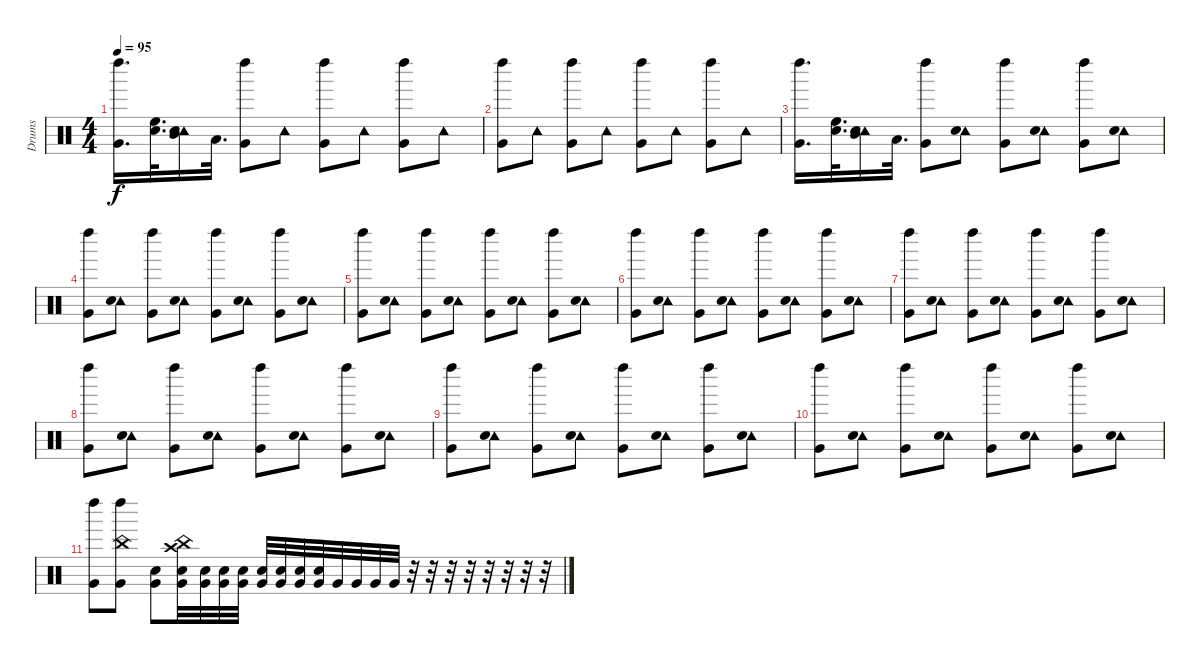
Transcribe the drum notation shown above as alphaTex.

\track ("Drums" "Drums") {instrument percussion}
\staff {score}
\articulation defaults
\ts (4 4)
\tempo 95
\clef neutral
\ks c
("Very Low Tom (hit)" "Left Maraca (hit)").16{d dy f} ("High Floor Tom (hit)" "Snare (hit) 2").32{d} ("Mid Tom (hit)" "Tambourine (hit)" "Snare (hit) 2").16 "Low Tom (hit)".32{d} ("Very Low Tom (hit)" "Left Maraca (hit)").8 "Tambourine (hit)".8 ("Very Low Tom (hit)" "Left Maraca (hit)").8 "Tambourine (hit)".8 ("Very Low Tom (hit)" "Left Maraca (hit)").8 "Tambourine (hit)".8 |
("Very Low Tom (hit)" "Left Maraca (hit)").8 "Tambourine (hit)".8 ("Very Low Tom (hit)" "Left Maraca (hit)").8 "Tambourine (hit)".8 ("Very Low Tom (hit)" "Left Maraca (hit)").8 "Tambourine (hit)".8 ("Very Low Tom (hit)" "Left Maraca (hit)").8 "Tambourine (hit)".8 |
("Very Low Tom (hit)" "Left Maraca (hit)").16{d} ("High Floor Tom (hit)" "Snare (hit) 2").32{d} ("Mid Tom (hit)" "Tambourine (hit)" "Snare (hit) 2").16 "Low Tom (hit)".32{d} ("Very Low Tom (hit)" "Left Maraca (hit)").8 ("Tambourine (hit)" "Snare (hit) 2").8 ("Very Low Tom (hit)" "Left Maraca (hit)").8 ("Tambourine (hit)" "Snare (hit) 2").8 ("Very Low Tom (hit)" "Left Maraca (hit)").8 ("Tambourine (hit)" "Snare (hit) 2").8 |
("Very Low Tom (hit)" "Left Maraca (hit)").8 ("Tambourine (hit)" "Snare (hit) 2").8 ("Very Low Tom (hit)" "Left Maraca (hit)").8 ("Tambourine (hit)" "Snare (hit) 2").8 ("Very Low Tom (hit)" "Left Maraca (hit)").8 ("Tambourine (hit)" "Snare (hit) 2").8 ("Very Low Tom (hit)" "Left Maraca (hit)").8 ("Tambourine (hit)" "Snare (hit) 2").8 |
("Very Low Tom (hit)" "Left Maraca (hit)").8 ("Tambourine (hit)" "Snare (hit) 2").8 ("Very Low Tom (hit)" "Left Maraca (hit)").8 ("Tambourine (hit)" "Snare (hit) 2").8 ("Very Low Tom (hit)" "Left Maraca (hit)").8 ("Tambourine (hit)" "Snare (hit) 2").8 ("Very Low Tom (hit)" "Left Maraca (hit)").8 ("Tambourine (hit)" "Snare (hit) 2").8 |
("Very Low Tom (hit)" "Left Maraca (hit)").8 ("Tambourine (hit)" "Snare (hit) 2").8 ("Very Low Tom (hit)" "Left Maraca (hit)").8 ("Tambourine (hit)" "Snare (hit) 2").8 ("Very Low Tom (hit)" "Left Maraca (hit)").8 ("Tambourine (hit)" "Snare (hit) 2").8 ("Very Low Tom (hit)" "Left Maraca (hit)").8 ("Tambourine (hit)" "Snare (hit) 2").8 |
("Very Low Tom (hit)" "Left Maraca (hit)").8 ("Tambourine (hit)" "Snare (hit) 2").8 ("Very Low Tom (hit)" "Left Maraca (hit)").8 ("Tambourine (hit)" "Snare (hit) 2").8 ("Very Low Tom (hit)" "Left Maraca (hit)").8 ("Tambourine (hit)" "Snare (hit) 2").8 ("Very Low Tom (hit)" "Left Maraca (hit)").8 ("Tambourine (hit)" "Snare (hit) 2").8 |
("Very Low Tom (hit)" "Left Maraca (hit)").8 ("Tambourine (hit)" "Snare (hit) 2").8 ("Very Low Tom (hit)" "Left Maraca (hit)").8 ("Tambourine (hit)" "Snare (hit) 2").8 ("Very Low Tom (hit)" "Left Maraca (hit)").8 ("Tambourine (hit)" "Snare (hit) 2").8 ("Very Low Tom (hit)" "Left Maraca (hit)").8 ("Tambourine (hit)" "Snare (hit) 2").8 |
("Very Low Tom (hit)" "Left Maraca (hit)").8 ("Tambourine (hit)" "Snare (hit) 2").8 ("Very Low Tom (hit)" "Left Maraca (hit)").8 ("Tambourine (hit)" "Snare (hit) 2").8 ("Very Low Tom (hit)" "Left Maraca (hit)").8 ("Tambourine (hit)" "Snare (hit) 2").8 ("Very Low Tom (hit)" "Left Maraca (hit)").8 ("Tambourine (hit)" "Snare (hit) 2").8 |
("Very Low Tom (hit)" "Left Maraca (hit)").8 ("Tambourine (hit)" "Snare (hit) 2").8 ("Very Low Tom (hit)" "Left Maraca (hit)").8 ("Tambourine (hit)" "Snare (hit) 2").8 ("Very Low Tom (hit)" "Left Maraca (hit)").8 ("Tambourine (hit)" "Snare (hit) 2").8 ("Very Low Tom (hit)" "Left Maraca (hit)").8 ("Tambourine (hit)" "Snare (hit) 2").8 |
("Very Low Tom (hit)" "Left Maraca (hit)").8 ("Very Low Tom (hit)" "Left Maraca (hit)" "China (hit)").8 ("Very Low Tom (hit)" "Snare (hit) 2").8 ("Very Low Tom (hit)" "Snare (hit) 2" "China (hit)" "Crash high (hit)").32 ("Very Low Tom (hit)" "Snare (hit) 2").32 ("Very Low Tom (hit)" "Snare (hit) 2").32 ("Very Low Tom (hit)" "Snare (hit) 2").32 ("Very Low Tom (hit)" "Snare (hit) 2").32 ("Very Low Tom (hit)" "Snare (hit) 2").32 ("Very Low Tom (hit)" "Snare (hit) 2").32 ("Very Low Tom (hit)" "Snare (hit) 2").32 "Very Low Tom (hit)".32 "Very Low Tom (hit)".32 "Very Low Tom (hit)".32 "Very Low Tom (hit)".32 r.32 r.32 r.32 r.32 r.32 r.32 r.32 r.32
